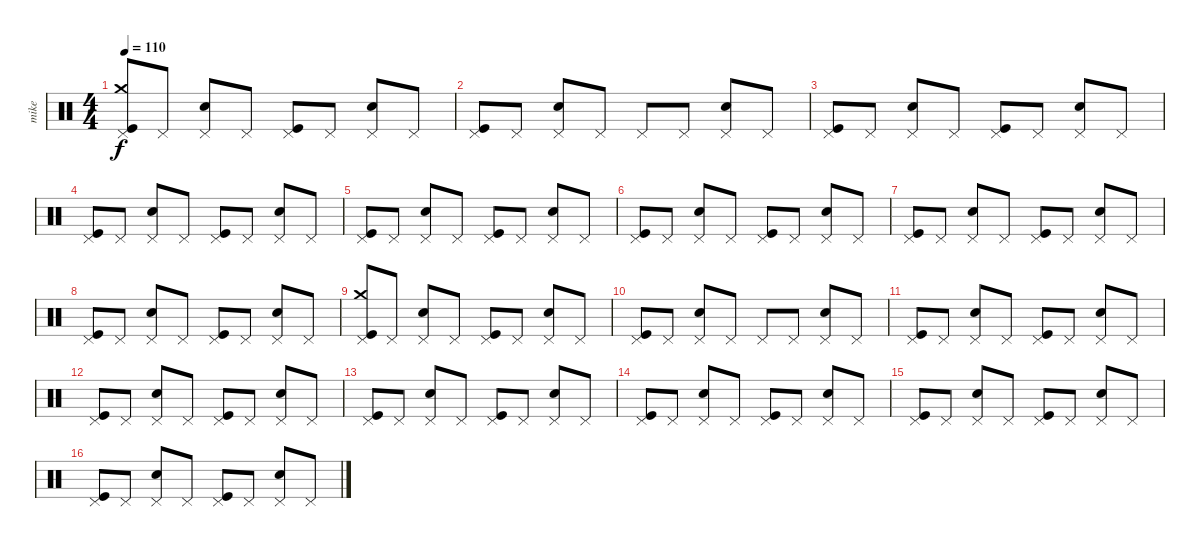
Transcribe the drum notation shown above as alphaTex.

\track ("mike" "mike") {instrument percussion}
\staff {score}
\articulation defaults
\ts (4 4)
\tempo 110
\clef neutral
\ks c
("Pedal Hi-Hat (hit)" "Crash medium (hit)" "Kick (hit)").8{dy f} "Pedal Hi-Hat (hit)".8 ("Pedal Hi-Hat (hit)" "Electric Snare (hit)").8 "Pedal Hi-Hat (hit)".8 ("Pedal Hi-Hat (hit)" "Kick (hit)").8 "Pedal Hi-Hat (hit)".8 ("Pedal Hi-Hat (hit)" "Electric Snare (hit)").8 "Pedal Hi-Hat (hit)".8 |
("Pedal Hi-Hat (hit)" "Kick (hit)").8 "Pedal Hi-Hat (hit)".8 ("Pedal Hi-Hat (hit)" "Electric Snare (hit)").8 "Pedal Hi-Hat (hit)".8 "Pedal Hi-Hat (hit)".8 "Pedal Hi-Hat (hit)".8 ("Pedal Hi-Hat (hit)" "Electric Snare (hit)").8 "Pedal Hi-Hat (hit)".8 |
("Pedal Hi-Hat (hit)" "Kick (hit)").8 "Pedal Hi-Hat (hit)".8 ("Pedal Hi-Hat (hit)" "Electric Snare (hit)").8 "Pedal Hi-Hat (hit)".8 ("Pedal Hi-Hat (hit)" "Kick (hit)").8 "Pedal Hi-Hat (hit)".8 ("Pedal Hi-Hat (hit)" "Electric Snare (hit)").8 "Pedal Hi-Hat (hit)".8 |
("Pedal Hi-Hat (hit)" "Kick (hit)").8 "Pedal Hi-Hat (hit)".8 ("Pedal Hi-Hat (hit)" "Electric Snare (hit)").8 "Pedal Hi-Hat (hit)".8 ("Pedal Hi-Hat (hit)" "Kick (hit)").8 "Pedal Hi-Hat (hit)".8 ("Pedal Hi-Hat (hit)" "Electric Snare (hit)").8 "Pedal Hi-Hat (hit)".8 |
("Pedal Hi-Hat (hit)" "Kick (hit)").8 "Pedal Hi-Hat (hit)".8 ("Pedal Hi-Hat (hit)" "Electric Snare (hit)").8 "Pedal Hi-Hat (hit)".8 ("Pedal Hi-Hat (hit)" "Kick (hit)").8 "Pedal Hi-Hat (hit)".8 ("Pedal Hi-Hat (hit)" "Electric Snare (hit)").8 "Pedal Hi-Hat (hit)".8 |
("Pedal Hi-Hat (hit)" "Kick (hit)").8 "Pedal Hi-Hat (hit)".8 ("Pedal Hi-Hat (hit)" "Electric Snare (hit)").8 "Pedal Hi-Hat (hit)".8 ("Pedal Hi-Hat (hit)" "Kick (hit)").8 "Pedal Hi-Hat (hit)".8 ("Pedal Hi-Hat (hit)" "Electric Snare (hit)").8 "Pedal Hi-Hat (hit)".8 |
("Pedal Hi-Hat (hit)" "Kick (hit)").8 "Pedal Hi-Hat (hit)".8 ("Pedal Hi-Hat (hit)" "Electric Snare (hit)").8 "Pedal Hi-Hat (hit)".8 ("Pedal Hi-Hat (hit)" "Kick (hit)").8 "Pedal Hi-Hat (hit)".8 ("Pedal Hi-Hat (hit)" "Electric Snare (hit)").8 "Pedal Hi-Hat (hit)".8 |
("Pedal Hi-Hat (hit)" "Kick (hit)").8 "Pedal Hi-Hat (hit)".8 ("Pedal Hi-Hat (hit)" "Electric Snare (hit)").8 "Pedal Hi-Hat (hit)".8 ("Pedal Hi-Hat (hit)" "Kick (hit)").8 "Pedal Hi-Hat (hit)".8 ("Pedal Hi-Hat (hit)" "Electric Snare (hit)").8 "Pedal Hi-Hat (hit)".8 |
("Pedal Hi-Hat (hit)" "Crash medium (hit)" "Kick (hit)").8 "Pedal Hi-Hat (hit)".8 ("Pedal Hi-Hat (hit)" "Electric Snare (hit)").8 "Pedal Hi-Hat (hit)".8 ("Pedal Hi-Hat (hit)" "Kick (hit)").8 "Pedal Hi-Hat (hit)".8 ("Pedal Hi-Hat (hit)" "Electric Snare (hit)").8 "Pedal Hi-Hat (hit)".8 |
("Pedal Hi-Hat (hit)" "Kick (hit)").8 "Pedal Hi-Hat (hit)".8 ("Pedal Hi-Hat (hit)" "Electric Snare (hit)").8 "Pedal Hi-Hat (hit)".8 "Pedal Hi-Hat (hit)".8 "Pedal Hi-Hat (hit)".8 ("Pedal Hi-Hat (hit)" "Electric Snare (hit)").8 "Pedal Hi-Hat (hit)".8 |
("Pedal Hi-Hat (hit)" "Kick (hit)").8 "Pedal Hi-Hat (hit)".8 ("Pedal Hi-Hat (hit)" "Electric Snare (hit)").8 "Pedal Hi-Hat (hit)".8 ("Pedal Hi-Hat (hit)" "Kick (hit)").8 "Pedal Hi-Hat (hit)".8 ("Pedal Hi-Hat (hit)" "Electric Snare (hit)").8 "Pedal Hi-Hat (hit)".8 |
("Pedal Hi-Hat (hit)" "Kick (hit)").8 "Pedal Hi-Hat (hit)".8 ("Pedal Hi-Hat (hit)" "Electric Snare (hit)").8 "Pedal Hi-Hat (hit)".8 ("Pedal Hi-Hat (hit)" "Kick (hit)").8 "Pedal Hi-Hat (hit)".8 ("Pedal Hi-Hat (hit)" "Electric Snare (hit)").8 "Pedal Hi-Hat (hit)".8 |
("Pedal Hi-Hat (hit)" "Kick (hit)").8 "Pedal Hi-Hat (hit)".8 ("Pedal Hi-Hat (hit)" "Electric Snare (hit)").8 "Pedal Hi-Hat (hit)".8 ("Pedal Hi-Hat (hit)" "Kick (hit)").8 "Pedal Hi-Hat (hit)".8 ("Pedal Hi-Hat (hit)" "Electric Snare (hit)").8 "Pedal Hi-Hat (hit)".8 |
("Pedal Hi-Hat (hit)" "Kick (hit)").8 "Pedal Hi-Hat (hit)".8 ("Pedal Hi-Hat (hit)" "Electric Snare (hit)").8 "Pedal Hi-Hat (hit)".8 ("Pedal Hi-Hat (hit)" "Kick (hit)").8 "Pedal Hi-Hat (hit)".8 ("Pedal Hi-Hat (hit)" "Electric Snare (hit)").8 "Pedal Hi-Hat (hit)".8 |
("Pedal Hi-Hat (hit)" "Kick (hit)").8 "Pedal Hi-Hat (hit)".8 ("Pedal Hi-Hat (hit)" "Electric Snare (hit)").8 "Pedal Hi-Hat (hit)".8 ("Pedal Hi-Hat (hit)" "Kick (hit)").8 "Pedal Hi-Hat (hit)".8 ("Pedal Hi-Hat (hit)" "Electric Snare (hit)").8 "Pedal Hi-Hat (hit)".8 |
("Pedal Hi-Hat (hit)" "Kick (hit)").8 "Pedal Hi-Hat (hit)".8 ("Pedal Hi-Hat (hit)" "Electric Snare (hit)").8 "Pedal Hi-Hat (hit)".8 ("Pedal Hi-Hat (hit)" "Kick (hit)").8 "Pedal Hi-Hat (hit)".8 ("Pedal Hi-Hat (hit)" "Electric Snare (hit)").8 "Pedal Hi-Hat (hit)".8
